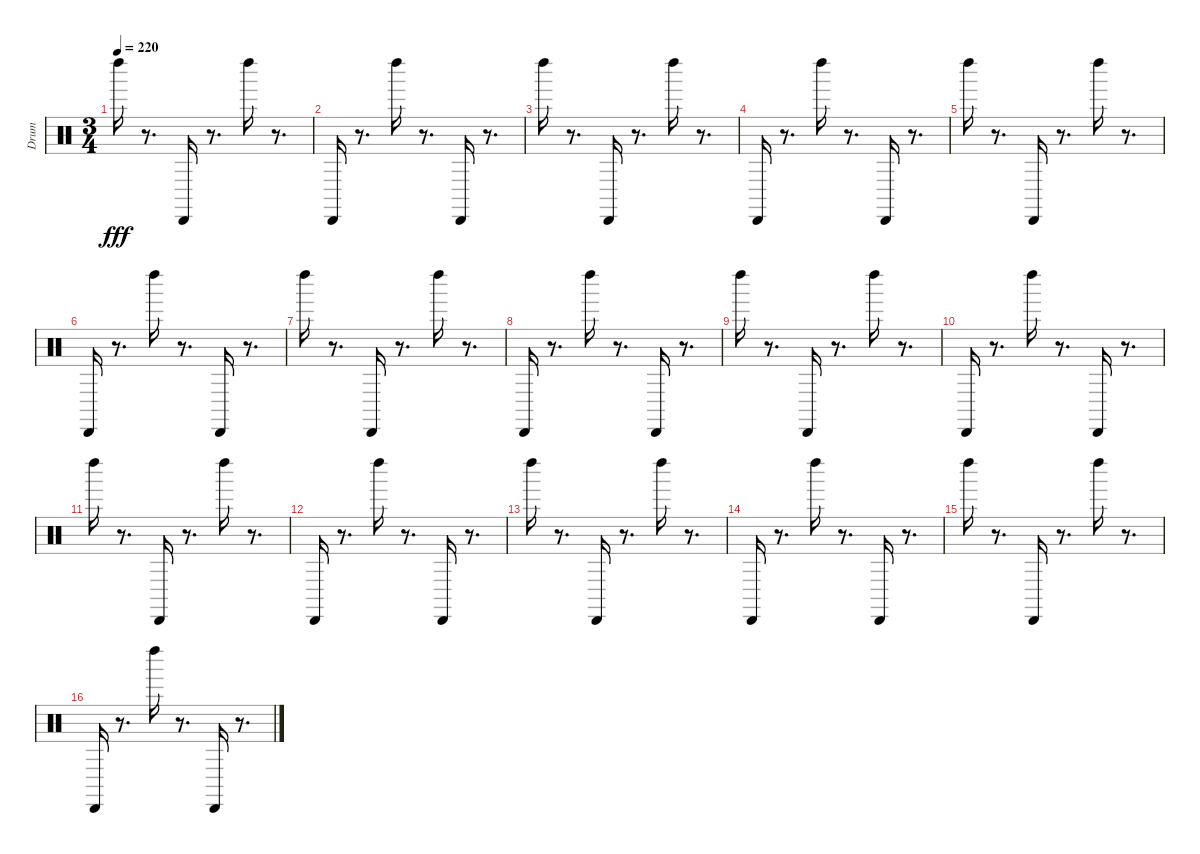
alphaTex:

\track ("Drum" "Drum") {instrument percussion}
\staff {score}
\articulation defaults
\ts (3 4)
\tempo 220
\clef neutral
\ks c "Left Maraca (hit)".16{dy fff}
r.8{d} "Cabasa (hit)".16 r.8{d} "Left Maraca (hit)".16 r.8{d} |
"Cabasa (hit)".16 r.8{d} "Left Maraca (hit)".16 r.8{d} "Cabasa (hit)".16 r.8{d} |
"Left Maraca (hit)".16 r.8{d} "Cabasa (hit)".16 r.8{d} "Left Maraca (hit)".16 r.8{d} |
"Cabasa (hit)".16 r.8{d} "Left Maraca (hit)".16 r.8{d} "Cabasa (hit)".16 r.8{d} |
"Left Maraca (hit)".16 r.8{d} "Cabasa (hit)".16 r.8{d} "Left Maraca (hit)".16 r.8{d} |
"Cabasa (hit)".16 r.8{d} "Left Maraca (hit)".16 r.8{d} "Cabasa (hit)".16 r.8{d} |
"Left Maraca (hit)".16 r.8{d} "Cabasa (hit)".16 r.8{d} "Left Maraca (hit)".16 r.8{d} |
"Cabasa (hit)".16 r.8{d} "Left Maraca (hit)".16 r.8{d} "Cabasa (hit)".16 r.8{d} |
"Left Maraca (hit)".16 r.8{d} "Cabasa (hit)".16 r.8{d} "Left Maraca (hit)".16 r.8{d} |
"Cabasa (hit)".16 r.8{d} "Left Maraca (hit)".16 r.8{d} "Cabasa (hit)".16 r.8{d} |
"Left Maraca (hit)".16 r.8{d} "Cabasa (hit)".16 r.8{d} "Left Maraca (hit)".16 r.8{d} |
"Cabasa (hit)".16 r.8{d} "Left Maraca (hit)".16 r.8{d} "Cabasa (hit)".16 r.8{d} |
"Left Maraca (hit)".16 r.8{d} "Cabasa (hit)".16 r.8{d} "Left Maraca (hit)".16 r.8{d} |
"Cabasa (hit)".16 r.8{d} "Left Maraca (hit)".16 r.8{d} "Cabasa (hit)".16 r.8{d} |
"Left Maraca (hit)".16 r.8{d} "Cabasa (hit)".16 r.8{d} "Left Maraca (hit)".16 r.8{d} |
"Cabasa (hit)".16 r.8{d} "Left Maraca (hit)".16 r.8{d} "Cabasa (hit)".16 r.8{d}
